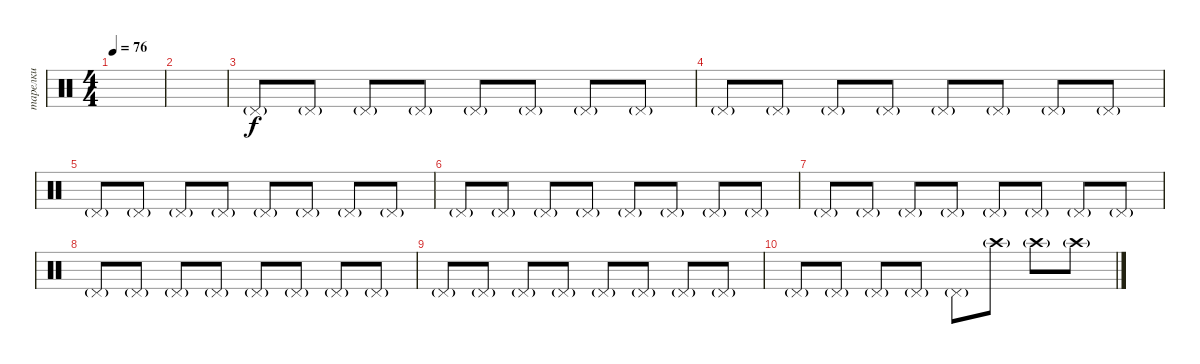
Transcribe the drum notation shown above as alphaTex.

\track ("тарелки" "тарелки") {instrument percussion}
\staff {score}
\articulation defaults
\ts (4 4)
\tempo 76
\clef neutral
\ks c
|
|
"Pedal Hi-Hat (hit)"{g}.8 "Pedal Hi-Hat (hit)"{g}.8 "Pedal Hi-Hat (hit)"{g}.8 "Pedal Hi-Hat (hit)"{g}.8 "Pedal Hi-Hat (hit)"{g}.8 "Pedal Hi-Hat (hit)"{g}.8 "Pedal Hi-Hat (hit)"{g}.8 "Pedal Hi-Hat (hit)"{g}.8 |
"Pedal Hi-Hat (hit)"{g}.8 "Pedal Hi-Hat (hit)"{g}.8 "Pedal Hi-Hat (hit)"{g}.8 "Pedal Hi-Hat (hit)"{g}.8 "Pedal Hi-Hat (hit)"{g}.8 "Pedal Hi-Hat (hit)"{g}.8 "Pedal Hi-Hat (hit)"{g}.8 "Pedal Hi-Hat (hit)"{g}.8 |
"Pedal Hi-Hat (hit)"{g}.8 "Pedal Hi-Hat (hit)"{g}.8 "Pedal Hi-Hat (hit)"{g}.8 "Pedal Hi-Hat (hit)"{g}.8 "Pedal Hi-Hat (hit)"{g}.8 "Pedal Hi-Hat (hit)"{g}.8 "Pedal Hi-Hat (hit)"{g}.8 "Pedal Hi-Hat (hit)"{g}.8 |
"Pedal Hi-Hat (hit)"{g}.8 "Pedal Hi-Hat (hit)"{g}.8 "Pedal Hi-Hat (hit)"{g}.8 "Pedal Hi-Hat (hit)"{g}.8 "Pedal Hi-Hat (hit)"{g}.8 "Pedal Hi-Hat (hit)"{g}.8 "Pedal Hi-Hat (hit)"{g}.8 "Pedal Hi-Hat (hit)"{g}.8 |
"Pedal Hi-Hat (hit)"{g}.8 "Pedal Hi-Hat (hit)"{g}.8 "Pedal Hi-Hat (hit)"{g}.8 "Pedal Hi-Hat (hit)"{g}.8 "Pedal Hi-Hat (hit)"{g}.8 "Pedal Hi-Hat (hit)"{g}.8 "Pedal Hi-Hat (hit)"{g}.8 "Pedal Hi-Hat (hit)"{g}.8 |
"Pedal Hi-Hat (hit)"{g}.8 "Pedal Hi-Hat (hit)"{g}.8 "Pedal Hi-Hat (hit)"{g}.8 "Pedal Hi-Hat (hit)"{g}.8 "Pedal Hi-Hat (hit)"{g}.8 "Pedal Hi-Hat (hit)"{g}.8 "Pedal Hi-Hat (hit)"{g}.8 "Pedal Hi-Hat (hit)"{g}.8 |
"Pedal Hi-Hat (hit)"{g}.8 "Pedal Hi-Hat (hit)"{g}.8 "Pedal Hi-Hat (hit)"{g}.8 "Pedal Hi-Hat (hit)"{g}.8 "Pedal Hi-Hat (hit)"{g}.8 "Pedal Hi-Hat (hit)"{g}.8 "Pedal Hi-Hat (hit)"{g}.8 "Pedal Hi-Hat (hit)"{g}.8 |
"Pedal Hi-Hat (hit)"{g}.8 "Pedal Hi-Hat (hit)"{g}.8 "Pedal Hi-Hat (hit)"{g}.8 "Pedal Hi-Hat (hit)"{g}.8 "Pedal Hi-Hat (hit)"{g}.8 "Crash high (hit)"{g}.8 "Crash high (hit)"{g}.8 "Crash high (hit)"{g}.8
